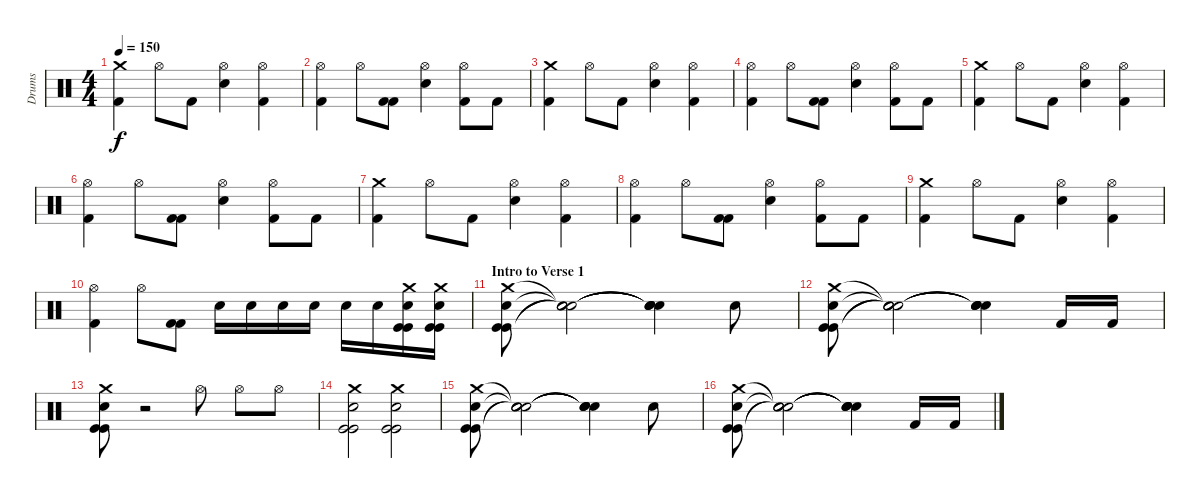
\track ("Drums" "Drums") {instrument percussion}
\staff {score}
\articulation defaults
\ts (4 4)
\tempo 150
\clef neutral
\ks c
("Crash medium (hit)" "Kick (hit) 2").4{dy f} "Hi-Hat (open)".8 "Kick (hit) 2".8 ("Hi-Hat (open)" "Electric Snare (hit)").4 ("Hi-Hat (open)" "Kick (hit) 2").4 |
("Hi-Hat (open)" "Kick (hit) 2").4 "Hi-Hat (open)".8 ("Kick (hit) 2" "Kick (hit) 2").8 ("Hi-Hat (open)" "Electric Snare (hit)").4 ("Hi-Hat (open)" "Kick (hit) 2").8 "Kick (hit) 2".8 |
("Crash medium (hit)" "Kick (hit) 2").4 "Hi-Hat (open)".8 "Kick (hit) 2".8 ("Hi-Hat (open)" "Electric Snare (hit)").4 ("Hi-Hat (open)" "Kick (hit) 2").4 |
("Hi-Hat (open)" "Kick (hit) 2").4 "Hi-Hat (open)".8 ("Kick (hit) 2" "Kick (hit) 2").8 ("Hi-Hat (open)" "Electric Snare (hit)").4 ("Hi-Hat (open)" "Kick (hit) 2").8 "Kick (hit) 2".8 |
("Crash medium (hit)" "Kick (hit) 2").4 "Hi-Hat (open)".8 "Kick (hit) 2".8 ("Hi-Hat (open)" "Electric Snare (hit)").4 ("Hi-Hat (open)" "Kick (hit) 2").4 |
("Hi-Hat (open)" "Kick (hit) 2").4 "Hi-Hat (open)".8 ("Kick (hit) 2" "Kick (hit) 2").8 ("Hi-Hat (open)" "Electric Snare (hit)").4 ("Hi-Hat (open)" "Kick (hit) 2").8 "Kick (hit) 2".8 |
("Crash medium (hit)" "Kick (hit) 2").4 "Hi-Hat (open)".8 "Kick (hit) 2".8 ("Hi-Hat (open)" "Electric Snare (hit)").4 ("Hi-Hat (open)" "Kick (hit) 2").4 |
("Hi-Hat (open)" "Kick (hit) 2").4 "Hi-Hat (open)".8 ("Kick (hit) 2" "Kick (hit) 2").8 ("Hi-Hat (open)" "Electric Snare (hit)").4 ("Hi-Hat (open)" "Kick (hit) 2").8 "Kick (hit) 2".8 |
("Crash medium (hit)" "Kick (hit) 2").4 "Hi-Hat (open)".8 "Kick (hit) 2".8 ("Hi-Hat (open)" "Electric Snare (hit)").4 ("Hi-Hat (open)" "Kick (hit) 2").4 |
("Hi-Hat (open)" "Kick (hit) 2").4 "Hi-Hat (open)".8 ("Kick (hit) 2" "Kick (hit) 2").8 "Snare (hit) 2".16 "Snare (hit) 2".16 "Snare (hit) 2".16 "Snare (hit) 2".16 "Snare (hit) 2".16 "Snare (hit) 2".16 ("Kick (hit)" "Kick (hit)" "Snare (hit) 2" "Crash medium (hit)").16 ("Kick (hit)" "Kick (hit)" "Snare (hit) 2" "Crash medium (hit)").16 |
\section ("" "Intro to Verse 1")
("Crash medium (hit)" "Kick (hit)" "Kick (hit)" "Snare (hit) 2").8 ("Snare (hit)"{t} "Snare (hit)"{t} "Snare (hit)"{t} "Snare (hit)"{t}).2 ("Snare (hit)"{t} "Snare (hit)"{t} "Snare (hit)"{t} "Snare (hit)"{t}).4 "Snare (hit) 2".8 |
("Crash medium (hit)" "Kick (hit)" "Kick (hit)" "Snare (hit) 2").8 ("Snare (hit)"{t} "Snare (hit)"{t} "Snare (hit)"{t} "Snare (hit)"{t}).2 ("Snare (hit)"{t} "Snare (hit)"{t} "Snare (hit)"{t} "Snare (hit)"{t}).4 "Kick (hit) 2".16 "Kick (hit) 2".16 |
("Crash medium (hit)" "Kick (hit)" "Kick (hit)" "Snare (hit) 2").8 r.2 "Hi-Hat (open)".8 "Hi-Hat (open)".8 "Hi-Hat (open)".8 |
("Crash medium (hit)" "Snare (hit) 2" "Kick (hit)" "Kick (hit)").2 ("Crash medium (hit)" "Snare (hit) 2" "Kick (hit)" "Kick (hit)").2 |
("Crash medium (hit)" "Kick (hit)" "Kick (hit)" "Snare (hit) 2").8 ("Snare (hit)"{t} "Snare (hit)"{t} "Snare (hit)"{t} "Snare (hit)"{t}).2 ("Snare (hit)"{t} "Snare (hit)"{t} "Snare (hit)"{t} "Snare (hit)"{t}).4 "Snare (hit) 2".8 |
("Crash medium (hit)" "Kick (hit)" "Kick (hit)" "Snare (hit) 2").8 ("Snare (hit)"{t} "Snare (hit)"{t} "Snare (hit)"{t} "Snare (hit)"{t}).2 ("Snare (hit)"{t} "Snare (hit)"{t} "Snare (hit)"{t} "Snare (hit)"{t}).4 "Kick (hit) 2".16 "Kick (hit) 2".16
